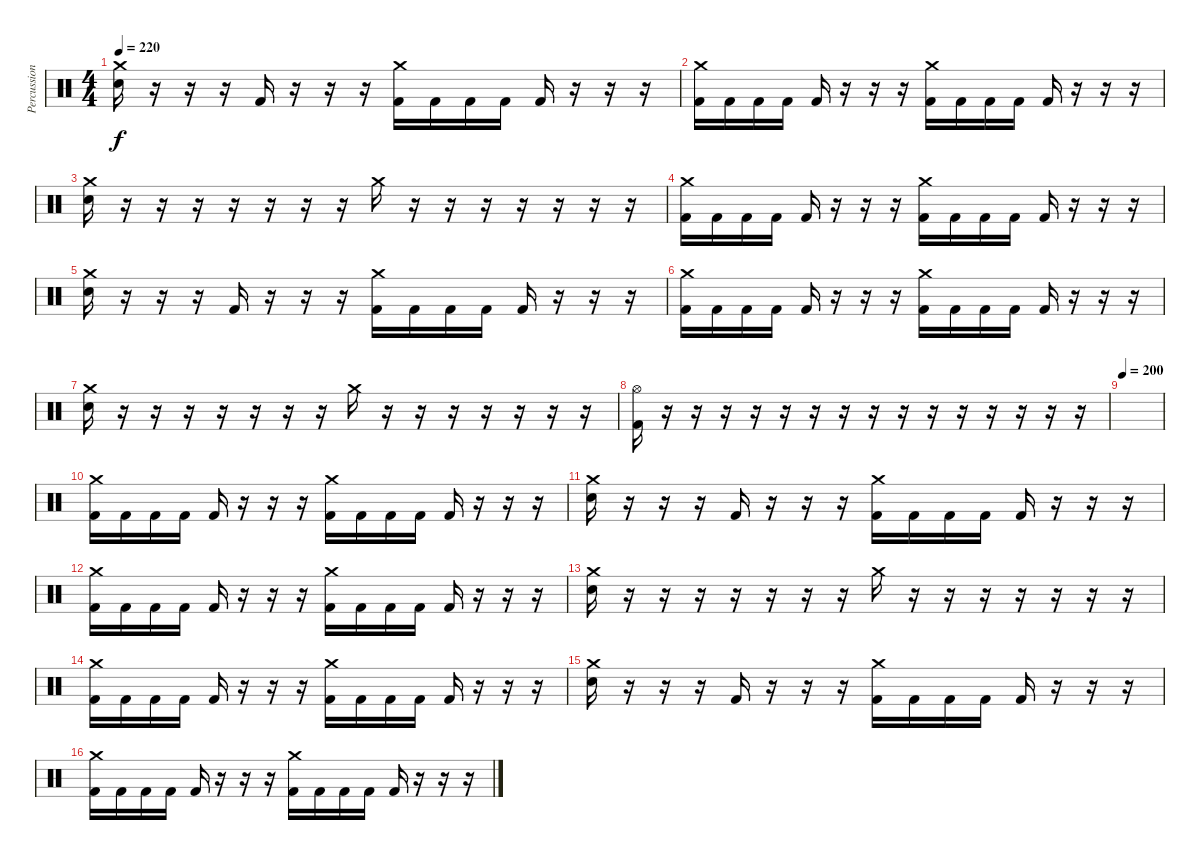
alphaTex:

\track ("Percussion" "Percussion") {instrument percussion}
\staff {score}
\articulation defaults
\ts (4 4)
\tempo 220
\clef neutral
\ks c
("Crash medium (hit)" "Electric Snare (hit)").16{dy f} r.16 r.16 r.16 "Kick (hit) 2".16 r.16 r.16 r.16 ("Crash medium (hit)" "Kick (hit) 2").16 "Kick (hit) 2".16 "Kick (hit) 2".16 "Kick (hit) 2".16 "Kick (hit) 2".16 r.16 r.16 r.16 |
("Crash medium (hit)" "Kick (hit) 2").16 "Kick (hit) 2".16 "Kick (hit) 2".16 "Kick (hit) 2".16 "Kick (hit) 2".16 r.16 r.16 r.16 ("Crash medium (hit)" "Kick (hit) 2").16 "Kick (hit) 2".16 "Kick (hit) 2".16 "Kick (hit) 2".16 "Kick (hit) 2".16 r.16 r.16 r.16 |
("Crash medium (hit)" "Electric Snare (hit)").16 r.16 r.16 r.16 r.16 r.16 r.16 r.16 "Crash medium (hit)".16 r.16 r.16 r.16 r.16 r.16 r.16 r.16 |
("Crash medium (hit)" "Kick (hit) 2").16 "Kick (hit) 2".16 "Kick (hit) 2".16 "Kick (hit) 2".16 "Kick (hit) 2".16 r.16 r.16 r.16 ("Crash medium (hit)" "Kick (hit) 2").16 "Kick (hit) 2".16 "Kick (hit) 2".16 "Kick (hit) 2".16 "Kick (hit) 2".16 r.16 r.16 r.16 |
("Crash medium (hit)" "Electric Snare (hit)").16 r.16 r.16 r.16 "Kick (hit) 2".16 r.16 r.16 r.16 ("Crash medium (hit)" "Kick (hit) 2").16 "Kick (hit) 2".16 "Kick (hit) 2".16 "Kick (hit) 2".16 "Kick (hit) 2".16 r.16 r.16 r.16 |
("Crash medium (hit)" "Kick (hit) 2").16 "Kick (hit) 2".16 "Kick (hit) 2".16 "Kick (hit) 2".16 "Kick (hit) 2".16 r.16 r.16 r.16 ("Crash medium (hit)" "Kick (hit) 2").16 "Kick (hit) 2".16 "Kick (hit) 2".16 "Kick (hit) 2".16 "Kick (hit) 2".16 r.16 r.16 r.16 |
("Crash medium (hit)" "Electric Snare (hit)").16 r.16 r.16 r.16 r.16 r.16 r.16 r.16 "Crash medium (hit)".16 r.16 r.16 r.16 r.16 r.16 r.16 r.16 |
("Hi-Hat (open)" "Kick (hit) 2").16 r.16{volume 0} r.16 r.16 r.16 r.16 r.16 r.16 r.16 r.16 r.16 r.16 r.16 r.16 r.16 r.16 |
\tempo 200
|
("Crash medium (hit)" "Kick (hit) 2").16 "Kick (hit) 2".16 "Kick (hit) 2".16 "Kick (hit) 2".16 "Kick (hit) 2".16 r.16 r.16 r.16 ("Crash medium (hit)" "Kick (hit) 2").16 "Kick (hit) 2".16 "Kick (hit) 2".16 "Kick (hit) 2".16 "Kick (hit) 2".16 r.16 r.16 r.16 |
("Crash medium (hit)" "Electric Snare (hit)").16 r.16 r.16 r.16 "Kick (hit) 2".16 r.16 r.16 r.16 ("Crash medium (hit)" "Kick (hit) 2").16 "Kick (hit) 2".16 "Kick (hit) 2".16 "Kick (hit) 2".16 "Kick (hit) 2".16 r.16 r.16 r.16 |
("Crash medium (hit)" "Kick (hit) 2").16 "Kick (hit) 2".16 "Kick (hit) 2".16 "Kick (hit) 2".16 "Kick (hit) 2".16 r.16 r.16 r.16 ("Crash medium (hit)" "Kick (hit) 2").16 "Kick (hit) 2".16 "Kick (hit) 2".16 "Kick (hit) 2".16 "Kick (hit) 2".16 r.16 r.16 r.16 |
("Crash medium (hit)" "Electric Snare (hit)").16 r.16 r.16 r.16 r.16 r.16 r.16 r.16 "Crash medium (hit)".16 r.16 r.16 r.16 r.16 r.16 r.16 r.16 |
("Crash medium (hit)" "Kick (hit) 2").16 "Kick (hit) 2".16 "Kick (hit) 2".16 "Kick (hit) 2".16 "Kick (hit) 2".16 r.16 r.16 r.16 ("Crash medium (hit)" "Kick (hit) 2").16 "Kick (hit) 2".16 "Kick (hit) 2".16 "Kick (hit) 2".16 "Kick (hit) 2".16 r.16 r.16 r.16 |
("Crash medium (hit)" "Electric Snare (hit)").16 r.16 r.16 r.16 "Kick (hit) 2".16 r.16 r.16 r.16 ("Crash medium (hit)" "Kick (hit) 2").16 "Kick (hit) 2".16 "Kick (hit) 2".16 "Kick (hit) 2".16 "Kick (hit) 2".16 r.16 r.16 r.16 |
("Crash medium (hit)" "Kick (hit) 2").16 "Kick (hit) 2".16 "Kick (hit) 2".16 "Kick (hit) 2".16 "Kick (hit) 2".16 r.16 r.16 r.16 ("Crash medium (hit)" "Kick (hit) 2").16 "Kick (hit) 2".16 "Kick (hit) 2".16 "Kick (hit) 2".16 "Kick (hit) 2".16 r.16 r.16 r.16
